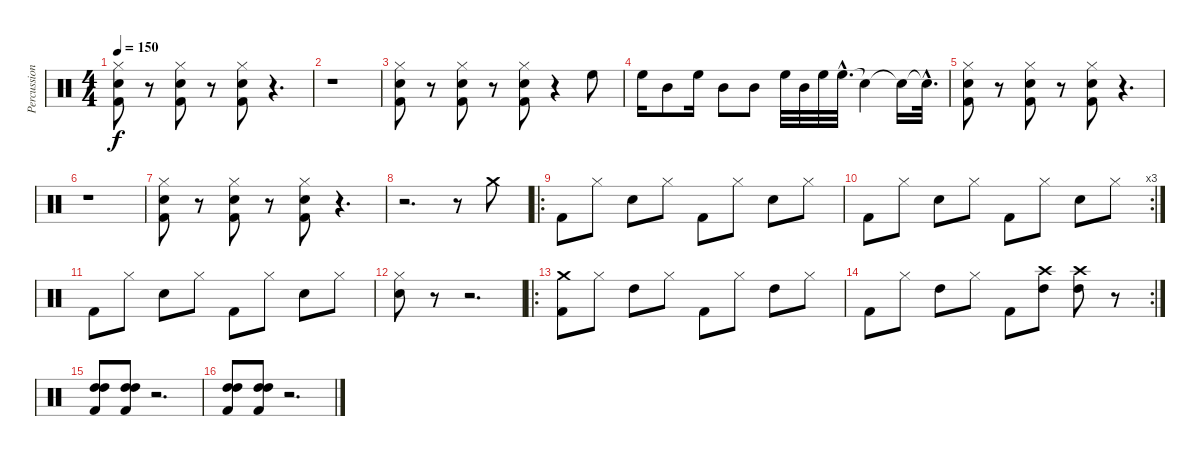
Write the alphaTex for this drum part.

\track ("Percussions" "Percussion") {instrument percussion}
\staff {score}
\articulation defaults
\ts (4 4)
\tempo 150
\clef neutral
\ks c
("Kick (hit) 2" "Snare (hit) 2" "Hi-Hat (closed)").8{dy f} r.8 ("Kick (hit) 2" "Snare (hit) 2" "Hi-Hat (closed)").8 r.8 ("Kick (hit) 2" "Snare (hit) 2" "Hi-Hat (closed)").8 r.4{d} |
r.1 |
("Kick (hit) 2" "Snare (hit) 2" "Hi-Hat (closed)").8 r.8 ("Kick (hit) 2" "Snare (hit) 2" "Hi-Hat (closed)").8 r.8 ("Kick (hit) 2" "Snare (hit) 2" "Hi-Hat (closed)").8 r.4 "High Floor Tom (hit)".8 |
"High Floor Tom (hit)".16 "Mid Tom (hit)".8 "High Floor Tom (hit)".16 "Mid Tom (hit)".8 "Mid Tom (hit)".8 "High Floor Tom (hit)".32 "Mid Tom (hit)".32 "High Floor Tom (hit)".32 "High Floor Tom (hit)"{hac}.32{d} "Snare (hit)"{t}.4 "Snare (hit)"{t}.16 "Snare (hit)"{hac t}.32{d} |
("Kick (hit) 2" "Snare (hit) 2" "Hi-Hat (closed)").8 r.8 ("Kick (hit) 2" "Snare (hit) 2" "Hi-Hat (closed)").8 r.8 ("Kick (hit) 2" "Snare (hit) 2" "Hi-Hat (closed)").8 r.4{d} |
r.1 |
("Kick (hit) 2" "Snare (hit) 2" "Hi-Hat (closed)").8 r.8 ("Kick (hit) 2" "Snare (hit) 2" "Hi-Hat (closed)").8 r.8 ("Kick (hit) 2" "Snare (hit) 2" "Hi-Hat (closed)").8 r.4{d} |
r.2{d} r.8 "Crash medium (hit)".8 |
\ro "Kick (hit) 2".8 "Hi-Hat (closed)".8 "Electric Snare (hit)".8 "Hi-Hat (closed)".8 "Kick (hit) 2".8 "Hi-Hat (closed)".8 "Electric Snare (hit)".8 "Hi-Hat (closed)".8
|
\rc 3 "Kick (hit) 2".8 "Hi-Hat (closed)".8 "Electric Snare (hit)".8 "Hi-Hat (closed)".8 "Kick (hit) 2".8 "Hi-Hat (closed)".8 "Electric Snare (hit)".8 "Hi-Hat (closed)".8
|
"Kick (hit) 2".8 "Hi-Hat (closed)".8 "Electric Snare (hit)".8 "Hi-Hat (closed)".8 "Kick (hit) 2".8 "Hi-Hat (closed)".8 "Electric Snare (hit)".8 "Hi-Hat (closed)".8 |
("Electric Snare (hit)" "Hi-Hat (closed)").8 r.8 r.2{d} |
\ro
("Kick (hit) 2" "Crash medium (hit)").8 "Hi-Hat (closed)".8 "High Tom (hit)".8 "Hi-Hat (closed)".8 "Kick (hit) 2".8 "Hi-Hat (closed)".8 "High Tom (hit)".8 "Hi-Hat (closed)".8 |
\rc 2 "Kick (hit) 2".8 "Hi-Hat (closed)".8 "High Tom (hit)".8 "Hi-Hat (closed)".8 "Kick (hit) 2".8
("Crash high (hit)" "High Tom (hit)").8 ("Crash high (hit)" "High Tom (hit)").8 r.8 |
("Kick (hit) 2" "High Tom (hit)" "High Tom (hit)").8 ("Kick (hit) 2" "High Tom (hit)" "High Tom (hit)").8 r.2{d} |
("Kick (hit) 2" "High Tom (hit)" "High Tom (hit)").8 ("Kick (hit) 2" "High Tom (hit)" "High Tom (hit)").8 r.2{d}
